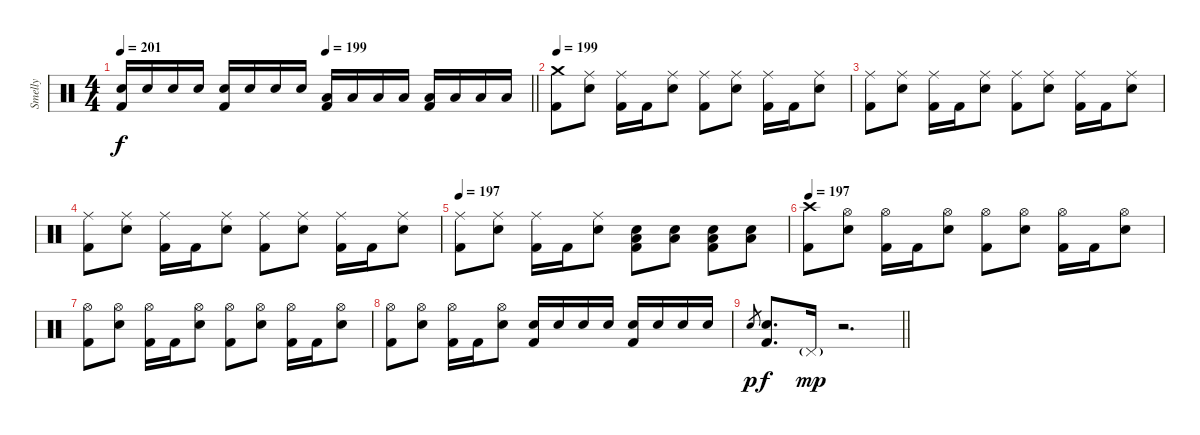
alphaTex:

\track ("Smelly" "Smelly") {instrument percussion}
\staff {score}
\articulation defaults
\ts (4 4)
\tempo 201
\tempo (199 0.5)
\clef neutral
\barLineRight lightlight
\ks c
("Electric Snare (hit)" "Kick (hit) 2").16{dy f} "Electric Snare (hit)".16 "Electric Snare (hit)".16 "Electric Snare (hit)".16 ("Electric Snare (hit)" "Kick (hit) 2").16 "Electric Snare (hit)".16 "Electric Snare (hit)".16 "Electric Snare (hit)".16 ("Low Tom (hit)" "Kick (hit) 2").16 "Low Tom (hit)".16 "Low Tom (hit)".16 "Low Tom (hit)".16 ("Low Floor Tom (hit)" "Kick (hit) 2").16 "Low Floor Tom (hit)".16 "Low Floor Tom (hit)".16 "Low Floor Tom (hit)".16 |
\section ("" "")
\tempo 199
("Crash medium (hit)" "Kick (hit) 2").8 ("Ride (middle)" "Electric Snare (hit)").8 ("Ride (middle)" "Kick (hit) 2").16 "Kick (hit) 2".16 ("Ride (middle)" "Electric Snare (hit)").8 ("Ride (middle)" "Kick (hit) 2").8 ("Ride (middle)" "Electric Snare (hit)").8 ("Ride (middle)" "Kick (hit) 2").16 "Kick (hit) 2".16 ("Ride (middle)" "Electric Snare (hit)").8 |
("Ride (middle)" "Kick (hit) 2").8 ("Ride (middle)" "Electric Snare (hit)").8 ("Ride (middle)" "Kick (hit) 2").16 "Kick (hit) 2".16 ("Ride (middle)" "Electric Snare (hit)").8 ("Ride (middle)" "Kick (hit) 2").8 ("Ride (middle)" "Electric Snare (hit)").8 ("Ride (middle)" "Kick (hit) 2").16 "Kick (hit) 2".16 ("Ride (middle)" "Electric Snare (hit)").8 |
("Ride (middle)" "Kick (hit) 2").8 ("Ride (middle)" "Electric Snare (hit)").8 ("Ride (middle)" "Kick (hit) 2").16 "Kick (hit) 2".16 ("Ride (middle)" "Electric Snare (hit)").8 ("Ride (middle)" "Kick (hit) 2").8 ("Ride (middle)" "Electric Snare (hit)").8 ("Ride (middle)" "Kick (hit) 2").16 "Kick (hit) 2".16 ("Ride (middle)" "Electric Snare (hit)").8 |
\tempo 197
("Ride (middle)" "Kick (hit) 2").8 ("Ride (middle)" "Electric Snare (hit)").8 ("Ride (middle)" "Kick (hit) 2").16 "Kick (hit) 2".16 ("Ride (middle)" "Electric Snare (hit)").8 ("Electric Snare (hit)" "Low Floor Tom (hit)" "Kick (hit) 2").8 ("Electric Snare (hit)" "Low Floor Tom (hit)").8 ("Electric Snare (hit)" "Low Floor Tom (hit)" "Kick (hit) 2").8 ("Electric Snare (hit)" "Low Floor Tom (hit)").8 |
\tempo 197
("Crash high (hit)" "Kick (hit) 2").8 ("Hi-Hat (open)" "Electric Snare (hit)").8 ("Hi-Hat (open)" "Kick (hit) 2").16 "Kick (hit) 2".16 ("Hi-Hat (open)" "Electric Snare (hit)").8 ("Hi-Hat (open)" "Kick (hit) 2").8 ("Hi-Hat (open)" "Electric Snare (hit)").8 ("Hi-Hat (open)" "Kick (hit) 2").16 "Kick (hit) 2".16 ("Hi-Hat (open)" "Electric Snare (hit)").8 |
("Hi-Hat (open)" "Kick (hit) 2").8 ("Hi-Hat (open)" "Electric Snare (hit)").8 ("Hi-Hat (open)" "Kick (hit) 2").16 "Kick (hit) 2".16 ("Hi-Hat (open)" "Electric Snare (hit)").8 ("Hi-Hat (open)" "Kick (hit) 2").8 ("Hi-Hat (open)" "Electric Snare (hit)").8 ("Hi-Hat (open)" "Kick (hit) 2").16 "Kick (hit) 2".16 ("Hi-Hat (open)" "Electric Snare (hit)").8 |
("Hi-Hat (open)" "Kick (hit) 2").8 ("Hi-Hat (open)" "Electric Snare (hit)").8 ("Hi-Hat (open)" "Kick (hit) 2").16 "Kick (hit) 2".16 ("Hi-Hat (open)" "Electric Snare (hit)").8 ("Electric Snare (hit)" "Kick (hit) 2").16 "Electric Snare (hit)".16 "Electric Snare (hit)".16 "Electric Snare (hit)".16 ("Electric Snare (hit)" "Kick (hit) 2").16 "Electric Snare (hit)".16 "Electric Snare (hit)".16 "Electric Snare (hit)".16 |
\barLineRight lightlight "Electric Snare (hit)".8{gr dy p}
("Electric Snare (hit)" "Kick (hit) 2").8{d dy f} "Pedal Hi-Hat (hit)"{g}.16{dy mp} r.2{d}
